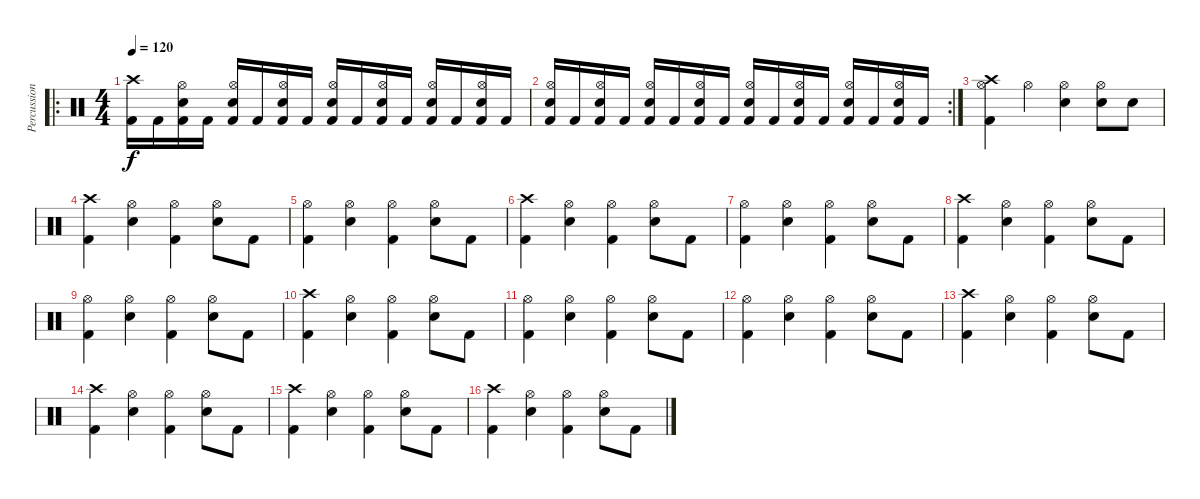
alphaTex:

\track ("Percussion" "Percussion") {instrument percussion}
\staff {score}
\articulation defaults
\ro
\ts (4 4)
\tempo 120
\clef neutral
\ks c
("Crash high (hit)" "Kick (hit) 2").16{dy f} "Kick (hit) 2".16 ("Hi-Hat (open)" "Snare (hit) 2" "Kick (hit) 2").16 "Kick (hit) 2".16 ("Hi-Hat (open)" "Snare (hit) 2" "Kick (hit) 2").16 "Kick (hit) 2".16 ("Hi-Hat (open)" "Snare (hit) 2" "Kick (hit) 2").16 "Kick (hit) 2".16 ("Hi-Hat (open)" "Snare (hit) 2" "Kick (hit) 2").16 "Kick (hit) 2".16 ("Hi-Hat (open)" "Snare (hit) 2" "Kick (hit) 2").16 "Kick (hit) 2".16 ("Hi-Hat (open)" "Snare (hit) 2" "Kick (hit) 2").16 "Kick (hit) 2".16 ("Hi-Hat (open)" "Snare (hit) 2" "Kick (hit) 2").16 "Kick (hit) 2".16 |
\rc 2
("Hi-Hat (open)" "Snare (hit) 2" "Kick (hit) 2").16 "Kick (hit) 2".16 ("Hi-Hat (open)" "Snare (hit) 2" "Kick (hit) 2").16 "Kick (hit) 2".16 ("Hi-Hat (open)" "Snare (hit) 2" "Kick (hit) 2").16 "Kick (hit) 2".16 ("Hi-Hat (open)" "Snare (hit) 2" "Kick (hit) 2").16 "Kick (hit) 2".16 ("Hi-Hat (open)" "Snare (hit) 2" "Kick (hit) 2").16 "Kick (hit) 2".16 ("Hi-Hat (open)" "Snare (hit) 2" "Kick (hit) 2").16 "Kick (hit) 2".16 ("Hi-Hat (open)" "Snare (hit) 2" "Kick (hit) 2").16 "Kick (hit) 2".16 ("Hi-Hat (open)" "Snare (hit) 2" "Kick (hit) 2").16 "Kick (hit) 2".16 |
("Crash high (hit)" "Hi-Hat (open)" "Kick (hit) 2").4 "Hi-Hat (open)".4 ("Hi-Hat (open)" "Electric Snare (hit)").4 ("Hi-Hat (open)" "Electric Snare (hit)").8 "Electric Snare (hit)".8 |
("Crash high (hit)" "Kick (hit) 2").4 ("Hi-Hat (open)" "Electric Snare (hit)").4 ("Hi-Hat (open)" "Kick (hit) 2").4 ("Hi-Hat (open)" "Electric Snare (hit)").8 "Kick (hit) 2".8 |
("Hi-Hat (open)" "Kick (hit) 2").4 ("Hi-Hat (open)" "Electric Snare (hit)").4 ("Hi-Hat (open)" "Kick (hit) 2").4 ("Hi-Hat (open)" "Electric Snare (hit)").8 "Kick (hit) 2".8 |
("Crash high (hit)" "Kick (hit) 2").4 ("Hi-Hat (open)" "Electric Snare (hit)").4 ("Hi-Hat (open)" "Kick (hit) 2").4 ("Hi-Hat (open)" "Electric Snare (hit)").8 "Kick (hit) 2".8 |
("Hi-Hat (open)" "Kick (hit) 2").4 ("Hi-Hat (open)" "Electric Snare (hit)").4 ("Hi-Hat (open)" "Kick (hit) 2").4 ("Hi-Hat (open)" "Electric Snare (hit)").8 "Kick (hit) 2".8 |
("Crash high (hit)" "Kick (hit) 2").4 ("Hi-Hat (open)" "Electric Snare (hit)").4 ("Hi-Hat (open)" "Kick (hit) 2").4 ("Hi-Hat (open)" "Electric Snare (hit)").8 "Kick (hit) 2".8 |
("Hi-Hat (open)" "Kick (hit) 2").4 ("Hi-Hat (open)" "Electric Snare (hit)").4 ("Hi-Hat (open)" "Kick (hit) 2").4 ("Hi-Hat (open)" "Electric Snare (hit)").8 "Kick (hit) 2".8 |
("Crash high (hit)" "Kick (hit) 2").4 ("Hi-Hat (open)" "Electric Snare (hit)").4 ("Hi-Hat (open)" "Kick (hit) 2").4 ("Hi-Hat (open)" "Electric Snare (hit)").8 "Kick (hit) 2".8 |
("Hi-Hat (open)" "Kick (hit) 2").4 ("Hi-Hat (open)" "Electric Snare (hit)").4 ("Hi-Hat (open)" "Kick (hit) 2").4 ("Hi-Hat (open)" "Electric Snare (hit)").8 "Kick (hit) 2".8 |
("Hi-Hat (open)" "Kick (hit) 2").4 ("Hi-Hat (open)" "Electric Snare (hit)").4 ("Hi-Hat (open)" "Kick (hit) 2").4 ("Hi-Hat (open)" "Electric Snare (hit)").8 "Kick (hit) 2".8 |
("Crash high (hit)" "Kick (hit) 2").4 ("Hi-Hat (open)" "Electric Snare (hit)").4 ("Hi-Hat (open)" "Kick (hit) 2").4 ("Hi-Hat (open)" "Electric Snare (hit)").8 "Kick (hit) 2".8 |
("Crash high (hit)" "Kick (hit) 2").4 ("Hi-Hat (open)" "Electric Snare (hit)").4 ("Hi-Hat (open)" "Kick (hit) 2").4 ("Hi-Hat (open)" "Electric Snare (hit)").8 "Kick (hit) 2".8 |
("Crash high (hit)" "Kick (hit) 2").4 ("Hi-Hat (open)" "Electric Snare (hit)").4 ("Hi-Hat (open)" "Kick (hit) 2").4 ("Hi-Hat (open)" "Electric Snare (hit)").8 "Kick (hit) 2".8 |
("Crash high (hit)" "Kick (hit) 2").4 ("Hi-Hat (open)" "Electric Snare (hit)").4 ("Hi-Hat (open)" "Kick (hit) 2").4 ("Hi-Hat (open)" "Electric Snare (hit)").8 "Kick (hit) 2".8
